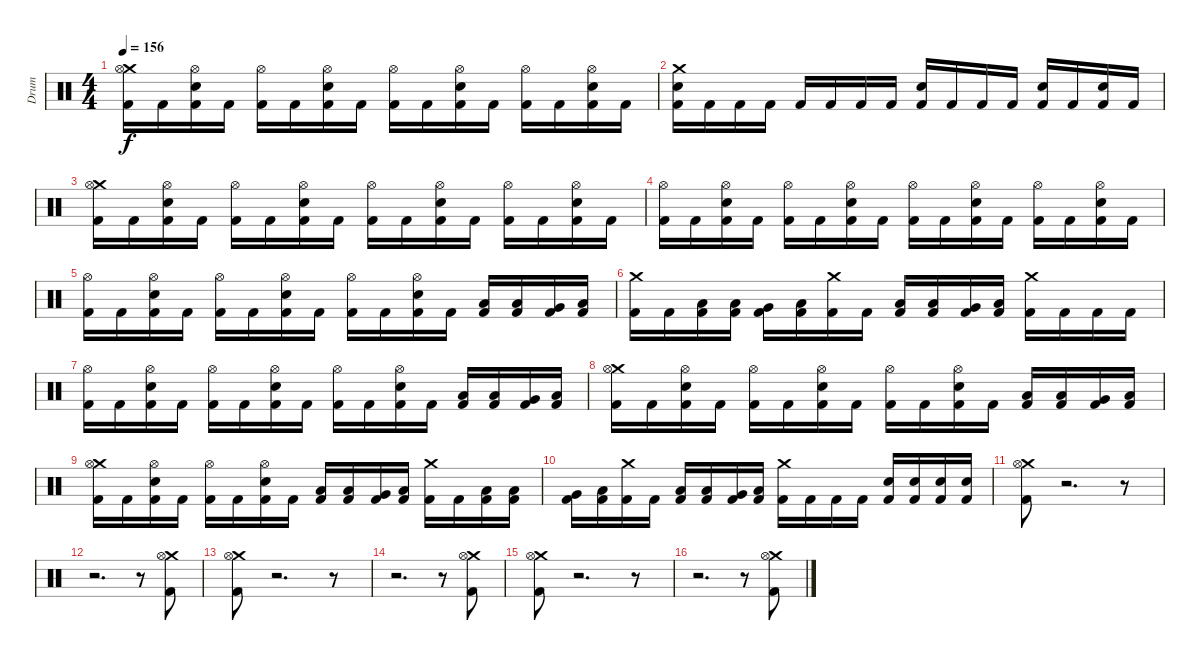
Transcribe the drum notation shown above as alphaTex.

\track (" Drum" " Drum") {instrument percussion}
\staff {score}
\articulation defaults
\ts (4 4)
\tempo 156
\clef neutral
\ks c
("Crash medium (hit)" "Hi-Hat (open)" "Kick (hit) 2").16{dy f} "Kick (hit) 2".16 ("Snare (hit) 2" "Hi-Hat (open)" "Kick (hit) 2").16 "Kick (hit) 2".16 ("Hi-Hat (open)" "Kick (hit) 2").16 "Kick (hit) 2".16 ("Snare (hit) 2" "Hi-Hat (open)" "Kick (hit) 2").16 "Kick (hit) 2".16 ("Hi-Hat (open)" "Kick (hit) 2").16 "Kick (hit) 2".16 ("Snare (hit) 2" "Hi-Hat (open)" "Kick (hit) 2").16 "Kick (hit) 2".16 ("Hi-Hat (open)" "Kick (hit) 2").16 "Kick (hit) 2".16 ("Snare (hit) 2" "Hi-Hat (open)" "Kick (hit) 2").16 "Kick (hit) 2".16 |
("Crash medium (hit)" "Snare (hit) 2" "Kick (hit) 2").16 "Kick (hit) 2".16 "Kick (hit) 2".16 "Kick (hit) 2".16 "Kick (hit) 2".16 "Kick (hit) 2".16 "Kick (hit) 2".16 "Kick (hit) 2".16 ("Snare (hit) 2" "Kick (hit) 2").16 "Kick (hit) 2".16 "Kick (hit) 2".16 "Kick (hit) 2".16 ("Kick (hit) 2" "Snare (hit) 2").16 "Kick (hit) 2".16 ("Snare (hit) 2" "Kick (hit) 2").16 "Kick (hit) 2".16 |
("Crash medium (hit)" "Hi-Hat (open)" "Kick (hit) 2").16 "Kick (hit) 2".16 ("Snare (hit) 2" "Hi-Hat (open)" "Kick (hit) 2").16 "Kick (hit) 2".16 ("Hi-Hat (open)" "Kick (hit) 2").16 "Kick (hit) 2".16 ("Snare (hit) 2" "Hi-Hat (open)" "Kick (hit) 2").16 "Kick (hit) 2".16 ("Hi-Hat (open)" "Kick (hit) 2").16 "Kick (hit) 2".16 ("Snare (hit) 2" "Hi-Hat (open)" "Kick (hit) 2").16 "Kick (hit) 2".16 ("Hi-Hat (open)" "Kick (hit) 2").16 "Kick (hit) 2".16 ("Snare (hit) 2" "Hi-Hat (open)" "Kick (hit) 2").16 "Kick (hit) 2".16 |
("Hi-Hat (open)" "Kick (hit) 2").16 "Kick (hit) 2".16 ("Snare (hit) 2" "Hi-Hat (open)" "Kick (hit) 2").16 "Kick (hit) 2".16 ("Hi-Hat (open)" "Kick (hit) 2").16 "Kick (hit) 2".16 ("Snare (hit) 2" "Hi-Hat (open)" "Kick (hit) 2").16 "Kick (hit) 2".16 ("Hi-Hat (open)" "Kick (hit) 2").16 "Kick (hit) 2".16 ("Snare (hit) 2" "Hi-Hat (open)" "Kick (hit) 2").16 "Kick (hit) 2".16 ("Hi-Hat (open)" "Kick (hit) 2").16 "Kick (hit) 2".16 ("Snare (hit) 2" "Hi-Hat (open)" "Kick (hit) 2").16 "Kick (hit) 2".16 |
("Hi-Hat (open)" "Kick (hit) 2").16 "Kick (hit) 2".16 ("Snare (hit) 2" "Hi-Hat (open)" "Kick (hit) 2").16 "Kick (hit) 2".16 ("Hi-Hat (open)" "Kick (hit) 2").16 "Kick (hit) 2".16 ("Snare (hit) 2" "Hi-Hat (open)" "Kick (hit) 2").16 "Kick (hit) 2".16 ("Hi-Hat (open)" "Kick (hit) 2").16 "Kick (hit) 2".16 ("Snare (hit) 2" "Hi-Hat (open)" "Kick (hit) 2").16 "Kick (hit) 2".16 ("Low Tom (hit)" "Kick (hit) 2").16 ("Low Tom (hit)" "Kick (hit) 2").16 ("Very Low Tom (hit)" "Kick (hit) 2").16 ("Low Floor Tom (hit)" "Kick (hit) 2").16 |
("Crash medium (hit)" "Kick (hit) 2").16 "Kick (hit) 2".16 ("Low Tom (hit)" "Kick (hit) 2").16 ("Low Tom (hit)" "Kick (hit) 2").16 ("Very Low Tom (hit)" "Kick (hit) 2").16 ("Low Floor Tom (hit)" "Kick (hit) 2").16 ("Crash medium (hit)" "Kick (hit) 2").16 "Kick (hit) 2".16 ("Low Tom (hit)" "Kick (hit) 2").16 ("Low Tom (hit)" "Kick (hit) 2").16 ("Very Low Tom (hit)" "Kick (hit) 2").16 ("Low Floor Tom (hit)" "Kick (hit) 2").16 ("Crash medium (hit)" "Kick (hit) 2").16 "Kick (hit) 2".16 "Kick (hit) 2".16 "Kick (hit) 2".16 |
("Hi-Hat (open)" "Kick (hit) 2").16 "Kick (hit) 2".16 ("Snare (hit) 2" "Hi-Hat (open)" "Kick (hit) 2").16 "Kick (hit) 2".16 ("Hi-Hat (open)" "Kick (hit) 2").16 "Kick (hit) 2".16 ("Snare (hit) 2" "Hi-Hat (open)" "Kick (hit) 2").16 "Kick (hit) 2".16 ("Hi-Hat (open)" "Kick (hit) 2").16 "Kick (hit) 2".16 ("Snare (hit) 2" "Hi-Hat (open)" "Kick (hit) 2").16 "Kick (hit) 2".16 ("Low Tom (hit)" "Kick (hit) 2").16 ("Low Tom (hit)" "Kick (hit) 2").16 ("Very Low Tom (hit)" "Kick (hit) 2").16 ("Low Floor Tom (hit)" "Kick (hit) 2").16 |
("Crash medium (hit)" "Hi-Hat (open)" "Kick (hit) 2").16 "Kick (hit) 2".16 ("Snare (hit) 2" "Hi-Hat (open)" "Kick (hit) 2").16 "Kick (hit) 2".16 ("Hi-Hat (open)" "Kick (hit) 2").16 "Kick (hit) 2".16 ("Snare (hit) 2" "Hi-Hat (open)" "Kick (hit) 2").16 "Kick (hit) 2".16 ("Hi-Hat (open)" "Kick (hit) 2").16 "Kick (hit) 2".16 ("Snare (hit) 2" "Hi-Hat (open)" "Kick (hit) 2").16 "Kick (hit) 2".16 ("Low Tom (hit)" "Kick (hit) 2").16 ("Low Tom (hit)" "Kick (hit) 2").16 ("Very Low Tom (hit)" "Kick (hit) 2").16 ("Low Floor Tom (hit)" "Kick (hit) 2").16 |
("Crash medium (hit)" "Hi-Hat (open)" "Kick (hit) 2").16 "Kick (hit) 2".16 ("Snare (hit) 2" "Hi-Hat (open)" "Kick (hit) 2").16 "Kick (hit) 2".16 ("Hi-Hat (open)" "Kick (hit) 2").16 "Kick (hit) 2".16 ("Snare (hit) 2" "Hi-Hat (open)" "Kick (hit) 2").16 "Kick (hit) 2".16 ("Low Tom (hit)" "Kick (hit) 2").16 ("Low Tom (hit)" "Kick (hit) 2").16 ("Very Low Tom (hit)" "Kick (hit) 2").16 ("Low Floor Tom (hit)" "Kick (hit) 2").16 ("Crash medium (hit)" "Kick (hit) 2").16 "Kick (hit) 2".16 ("Low Tom (hit)" "Kick (hit) 2").16 ("Low Tom (hit)" "Kick (hit) 2").16 |
("Very Low Tom (hit)" "Kick (hit) 2").16 ("Low Floor Tom (hit)" "Kick (hit) 2").16 ("Crash medium (hit)" "Kick (hit) 2").16 "Kick (hit) 2".16 ("Low Tom (hit)" "Kick (hit) 2").16 ("Low Tom (hit)" "Kick (hit) 2").16 ("Very Low Tom (hit)" "Kick (hit) 2").16 ("Low Floor Tom (hit)" "Kick (hit) 2").16 ("Crash medium (hit)" "Kick (hit) 2").16 "Kick (hit) 2".16 "Kick (hit) 2".16 "Kick (hit) 2".16 ("Snare (hit) 2" "Kick (hit) 2").16 ("Snare (hit) 2" "Kick (hit) 2").16 ("Snare (hit) 2" "Kick (hit) 2").16 ("Snare (hit) 2" "Kick (hit) 2").16 |
("Crash medium (hit)" "Hi-Hat (open)" "Kick (hit) 2").8 r.2{d} r.8 |
r.2{d} r.8 ("Crash medium (hit)" "Hi-Hat (open)" "Kick (hit) 2").8 |
("Crash medium (hit)" "Hi-Hat (open)" "Kick (hit) 2").8 r.2{d} r.8 |
r.2{d} r.8 ("Crash medium (hit)" "Hi-Hat (open)" "Kick (hit) 2").8 |
("Crash medium (hit)" "Hi-Hat (open)" "Kick (hit) 2").8 r.2{d} r.8 |
r.2{d} r.8 ("Crash medium (hit)" "Hi-Hat (open)" "Kick (hit) 2").8
